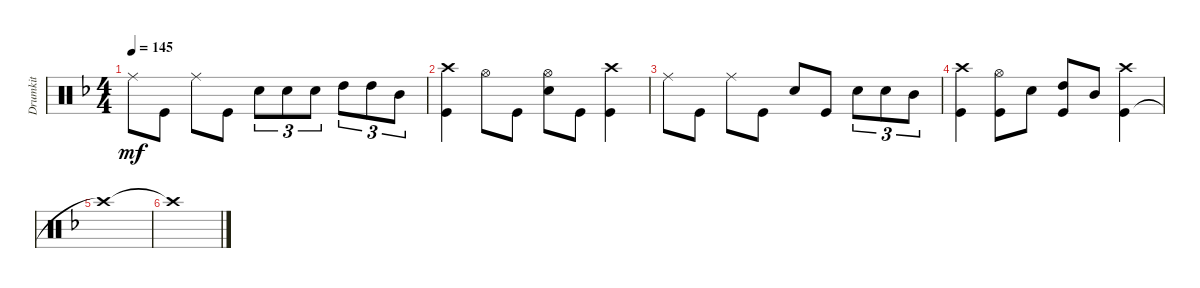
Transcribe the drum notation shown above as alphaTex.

\track ("Drumkit" "Drumkit") {instrument percussion}
\staff {score}
\articulation defaults
\ts (4 4)
\tempo 145
\clef neutral
\ks f "Ride (middle)".8{dy mf} "Kick (hit)".8 "Ride (middle)".8 "Kick (hit)".8 "Snare (hit) 2".8{tu (3 2)} "Snare (hit) 2".8{tu (3 2)} "Snare (hit) 2".8{tu (3 2)} "High Tom (hit)".8{tu (3 2)} "High Tom (hit)".8{tu (3 2)} "Mid Tom (hit)".8{tu (3 2)}
|
("Kick (hit)" "Crash high (hit)").4 "Hi-Hat (open)".8 "Kick (hit)".8 ("Hi-Hat (open)" "Snare (hit) 2").8 "Kick (hit)".8 ("Kick (hit)" "Crash high (hit)").4 |
"Ride (middle)".8 "Kick (hit)".8 "Ride (middle)".8 "Kick (hit)".8 "Snare (hit) 2".8 "Kick (hit)".8 "Snare (hit) 2".8{tu (3 2)} "Snare (hit) 2".8{tu (3 2)} "Mid Tom (hit)".8{tu (3 2)} |
("Kick (hit)" "Crash high (hit)").4 ("Kick (hit)" "Hi-Hat (open)").8 "Snare (hit) 2".8 ("High Tom (hit)" "Kick (hit)").8 "Mid Tom (hit)".8 ("Kick (hit)" "Crash high (hit)").4 |
"Crash high (hit)"{t}.1 |
"Crash high (hit)"{t}.1
